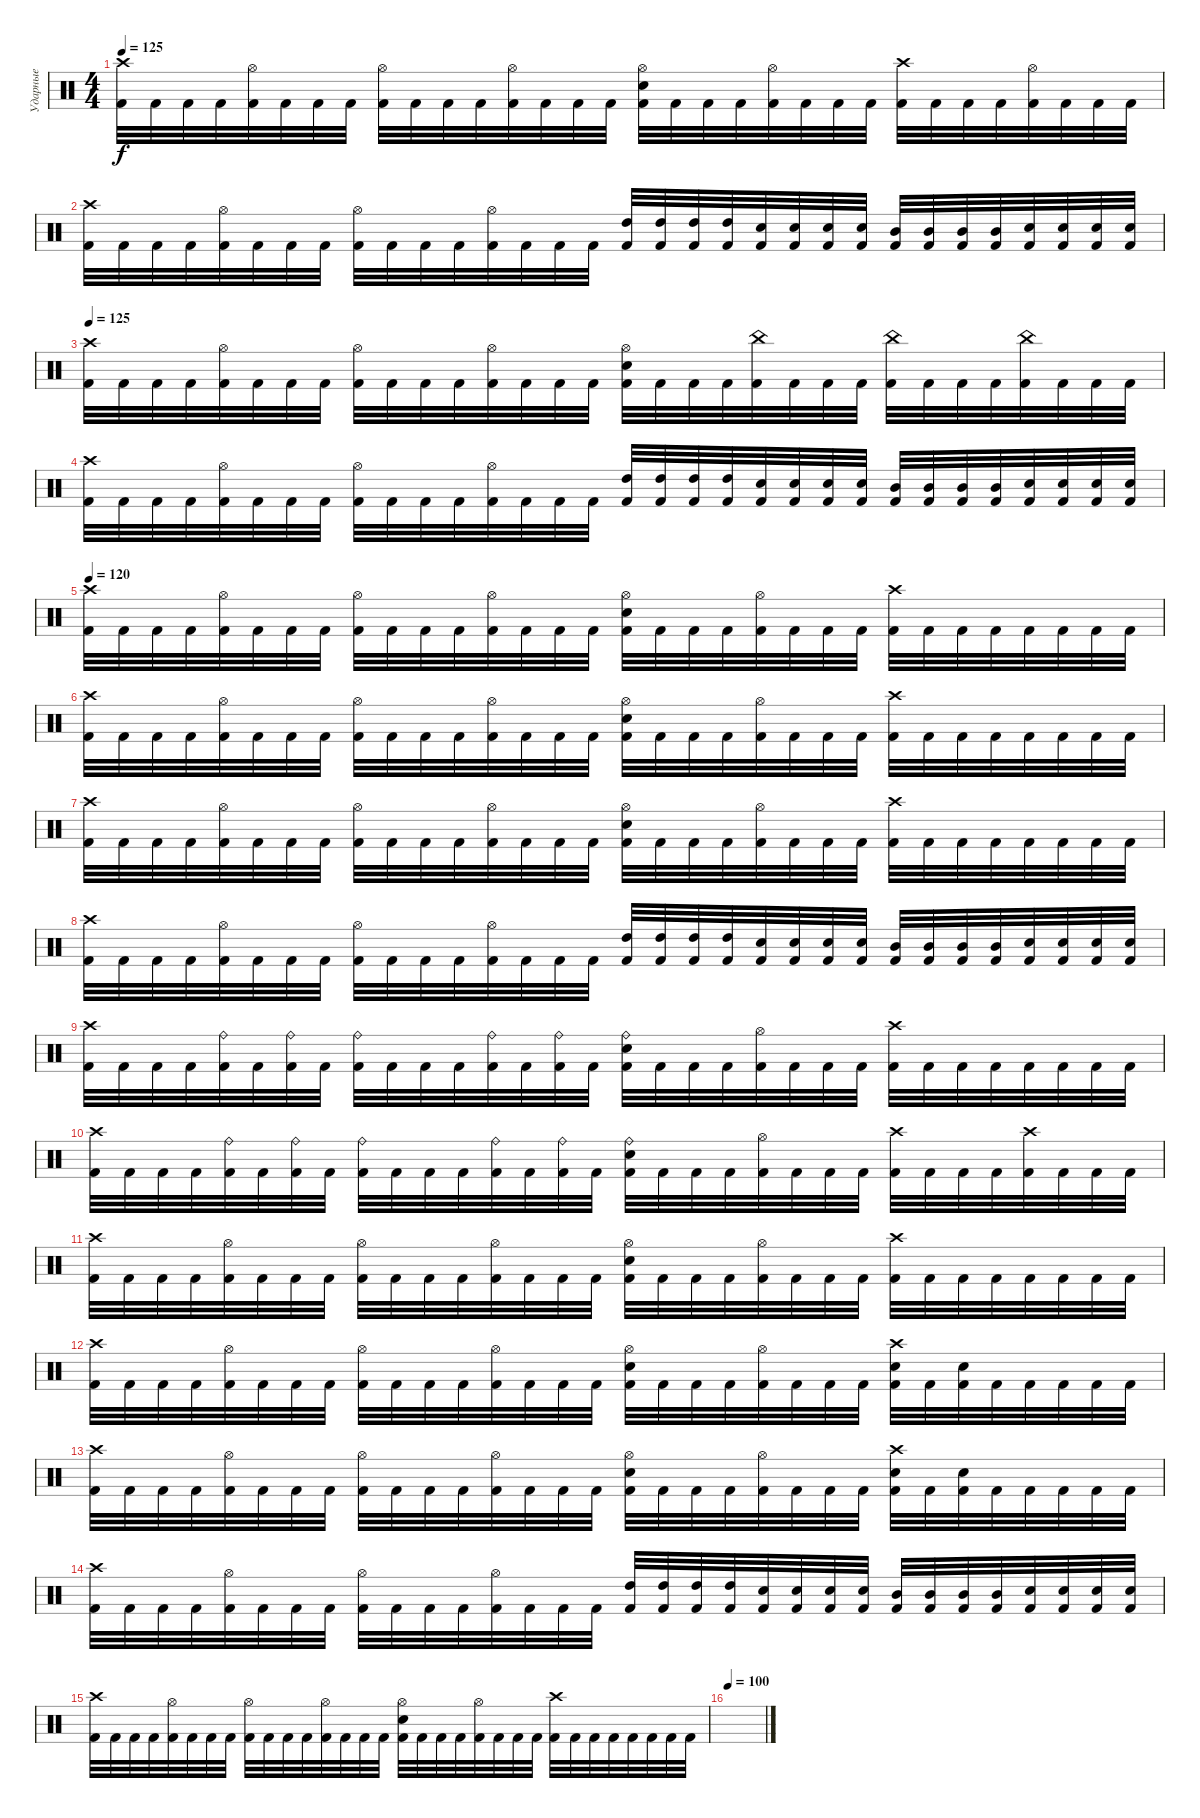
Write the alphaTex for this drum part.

\track ("Ударные" "Ударные") {instrument percussion}
\staff {score}
\articulation defaults
\ts (4 4)
\tempo 125
\clef neutral
\ks c
("Crash high (hit)" "Kick (hit) 2").32{dy f} "Kick (hit) 2".32 "Kick (hit) 2".32 "Kick (hit) 2".32 ("Hi-Hat (open)" "Kick (hit) 2").32 "Kick (hit) 2".32 "Kick (hit) 2".32 "Kick (hit) 2".32 ("Hi-Hat (open)" "Kick (hit) 2").32 "Kick (hit) 2".32 "Kick (hit) 2".32 "Kick (hit) 2".32 ("Hi-Hat (open)" "Kick (hit) 2").32 "Kick (hit) 2".32 "Kick (hit) 2".32 "Kick (hit) 2".32 ("Hi-Hat (open)" "Electric Snare (hit)" "Kick (hit) 2").32 "Kick (hit) 2".32 "Kick (hit) 2".32 "Kick (hit) 2".32 ("Hi-Hat (open)" "Kick (hit) 2").32 "Kick (hit) 2".32 "Kick (hit) 2".32 "Kick (hit) 2".32 ("Crash high (hit)" "Kick (hit) 2").32 "Kick (hit) 2".32 "Kick (hit) 2".32 "Kick (hit) 2".32 ("Hi-Hat (open)" "Kick (hit) 2").32 "Kick (hit) 2".32 "Kick (hit) 2".32 "Kick (hit) 2".32 |
("Crash high (hit)" "Kick (hit) 2").32 "Kick (hit) 2".32 "Kick (hit) 2".32 "Kick (hit) 2".32 ("Hi-Hat (open)" "Kick (hit) 2").32 "Kick (hit) 2".32 "Kick (hit) 2".32 "Kick (hit) 2".32 ("Hi-Hat (open)" "Kick (hit) 2").32 "Kick (hit) 2".32 "Kick (hit) 2".32 "Kick (hit) 2".32 ("Hi-Hat (open)" "Kick (hit) 2").32 "Kick (hit) 2".32 "Kick (hit) 2".32 "Kick (hit) 2".32 ("High Tom (hit)" "Kick (hit) 2").32 ("High Tom (hit)" "Kick (hit) 2").32 ("High Tom (hit)" "Kick (hit) 2").32 ("High Tom (hit)" "Kick (hit) 2").32 ("Electric Snare (hit)" "Kick (hit) 2").32 ("Electric Snare (hit)" "Kick (hit) 2").32 ("Electric Snare (hit)" "Kick (hit) 2").32 ("Electric Snare (hit)" "Kick (hit) 2").32 ("Mid Tom (hit)" "Kick (hit) 2").32 ("Mid Tom (hit)" "Kick (hit) 2").32 ("Mid Tom (hit)" "Kick (hit) 2").32 ("Mid Tom (hit)" "Kick (hit) 2").32 ("Electric Snare (hit)" "Kick (hit) 2").32 ("Electric Snare (hit)" "Kick (hit) 2").32 ("Electric Snare (hit)" "Kick (hit) 2").32 ("Electric Snare (hit)" "Kick (hit) 2").32 |
\tempo 125
("Crash high (hit)" "Kick (hit) 2").32 "Kick (hit) 2".32 "Kick (hit) 2".32 "Kick (hit) 2".32 ("Hi-Hat (open)" "Kick (hit) 2").32 "Kick (hit) 2".32 "Kick (hit) 2".32 "Kick (hit) 2".32 ("Hi-Hat (open)" "Kick (hit) 2").32 "Kick (hit) 2".32 "Kick (hit) 2".32 "Kick (hit) 2".32 ("Hi-Hat (open)" "Kick (hit) 2").32 "Kick (hit) 2".32 "Kick (hit) 2".32 "Kick (hit) 2".32 ("Hi-Hat (open)" "Electric Snare (hit)" "Kick (hit) 2").32 "Kick (hit) 2".32 "Kick (hit) 2".32 "Kick (hit) 2".32 ("China (hit)" "Kick (hit) 2").32 "Kick (hit) 2".32 "Kick (hit) 2".32 "Kick (hit) 2".32 ("China (hit)" "Kick (hit) 2").32 "Kick (hit) 2".32 "Kick (hit) 2".32 "Kick (hit) 2".32 ("China (hit)" "Kick (hit) 2").32 "Kick (hit) 2".32 "Kick (hit) 2".32 "Kick (hit) 2".32 |
("Crash high (hit)" "Kick (hit) 2").32 "Kick (hit) 2".32 "Kick (hit) 2".32 "Kick (hit) 2".32 ("Hi-Hat (open)" "Kick (hit) 2").32 "Kick (hit) 2".32 "Kick (hit) 2".32 "Kick (hit) 2".32 ("Hi-Hat (open)" "Kick (hit) 2").32 "Kick (hit) 2".32 "Kick (hit) 2".32 "Kick (hit) 2".32 ("Hi-Hat (open)" "Kick (hit) 2").32 "Kick (hit) 2".32 "Kick (hit) 2".32 "Kick (hit) 2".32 ("High Tom (hit)" "Kick (hit) 2").32 ("High Tom (hit)" "Kick (hit) 2").32 ("High Tom (hit)" "Kick (hit) 2").32 ("High Tom (hit)" "Kick (hit) 2").32 ("Electric Snare (hit)" "Kick (hit) 2").32 ("Electric Snare (hit)" "Kick (hit) 2").32 ("Electric Snare (hit)" "Kick (hit) 2").32 ("Electric Snare (hit)" "Kick (hit) 2").32 ("Mid Tom (hit)" "Kick (hit) 2").32 ("Mid Tom (hit)" "Kick (hit) 2").32 ("Mid Tom (hit)" "Kick (hit) 2").32 ("Mid Tom (hit)" "Kick (hit) 2").32 ("Electric Snare (hit)" "Kick (hit) 2").32 ("Electric Snare (hit)" "Kick (hit) 2").32 ("Electric Snare (hit)" "Kick (hit) 2").32 ("Electric Snare (hit)" "Kick (hit) 2").32 |
\tempo 120
("Crash high (hit)" "Kick (hit) 2").32 "Kick (hit) 2".32 "Kick (hit) 2".32 "Kick (hit) 2".32 ("Hi-Hat (open)" "Kick (hit) 2").32 "Kick (hit) 2".32 "Kick (hit) 2".32 "Kick (hit) 2".32 ("Hi-Hat (open)" "Kick (hit) 2").32 "Kick (hit) 2".32 "Kick (hit) 2".32 "Kick (hit) 2".32 ("Hi-Hat (open)" "Kick (hit) 2").32 "Kick (hit) 2".32 "Kick (hit) 2".32 "Kick (hit) 2".32 ("Hi-Hat (open)" "Electric Snare (hit)" "Kick (hit) 2").32 "Kick (hit) 2".32 "Kick (hit) 2".32 "Kick (hit) 2".32 ("Hi-Hat (open)" "Kick (hit) 2").32 "Kick (hit) 2".32 "Kick (hit) 2".32 "Kick (hit) 2".32 ("Crash high (hit)" "Kick (hit) 2").32 "Kick (hit) 2".32 "Kick (hit) 2".32 "Kick (hit) 2".32 "Kick (hit) 2".32 "Kick (hit) 2".32 "Kick (hit) 2".32 "Kick (hit) 2".32 |
("Crash high (hit)" "Kick (hit) 2").32 "Kick (hit) 2".32 "Kick (hit) 2".32 "Kick (hit) 2".32 ("Hi-Hat (open)" "Kick (hit) 2").32 "Kick (hit) 2".32 "Kick (hit) 2".32 "Kick (hit) 2".32 ("Hi-Hat (open)" "Kick (hit) 2").32 "Kick (hit) 2".32 "Kick (hit) 2".32 "Kick (hit) 2".32 ("Hi-Hat (open)" "Kick (hit) 2").32 "Kick (hit) 2".32 "Kick (hit) 2".32 "Kick (hit) 2".32 ("Hi-Hat (open)" "Electric Snare (hit)" "Kick (hit) 2").32 "Kick (hit) 2".32 "Kick (hit) 2".32 "Kick (hit) 2".32 ("Hi-Hat (open)" "Kick (hit) 2").32 "Kick (hit) 2".32 "Kick (hit) 2".32 "Kick (hit) 2".32 ("Crash high (hit)" "Kick (hit) 2").32 "Kick (hit) 2".32 "Kick (hit) 2".32 "Kick (hit) 2".32 "Kick (hit) 2".32 "Kick (hit) 2".32 "Kick (hit) 2".32 "Kick (hit) 2".32 |
("Crash high (hit)" "Kick (hit) 2").32 "Kick (hit) 2".32 "Kick (hit) 2".32 "Kick (hit) 2".32 ("Hi-Hat (open)" "Kick (hit) 2").32 "Kick (hit) 2".32 "Kick (hit) 2".32 "Kick (hit) 2".32 ("Hi-Hat (open)" "Kick (hit) 2").32 "Kick (hit) 2".32 "Kick (hit) 2".32 "Kick (hit) 2".32 ("Hi-Hat (open)" "Kick (hit) 2").32 "Kick (hit) 2".32 "Kick (hit) 2".32 "Kick (hit) 2".32 ("Hi-Hat (open)" "Electric Snare (hit)" "Kick (hit) 2").32 "Kick (hit) 2".32 "Kick (hit) 2".32 "Kick (hit) 2".32 ("Hi-Hat (open)" "Kick (hit) 2").32 "Kick (hit) 2".32 "Kick (hit) 2".32 "Kick (hit) 2".32 ("Crash high (hit)" "Kick (hit) 2").32 "Kick (hit) 2".32 "Kick (hit) 2".32 "Kick (hit) 2".32 "Kick (hit) 2".32 "Kick (hit) 2".32 "Kick (hit) 2".32 "Kick (hit) 2".32 |
("Crash high (hit)" "Kick (hit) 2").32 "Kick (hit) 2".32 "Kick (hit) 2".32 "Kick (hit) 2".32 ("Hi-Hat (open)" "Kick (hit) 2").32 "Kick (hit) 2".32 "Kick (hit) 2".32 "Kick (hit) 2".32 ("Hi-Hat (open)" "Kick (hit) 2").32 "Kick (hit) 2".32 "Kick (hit) 2".32 "Kick (hit) 2".32 ("Hi-Hat (open)" "Kick (hit) 2").32 "Kick (hit) 2".32 "Kick (hit) 2".32 "Kick (hit) 2".32 ("High Tom (hit)" "Kick (hit) 2").32 ("High Tom (hit)" "Kick (hit) 2").32 ("High Tom (hit)" "Kick (hit) 2").32 ("High Tom (hit)" "Kick (hit) 2").32 ("Electric Snare (hit)" "Kick (hit) 2").32 ("Electric Snare (hit)" "Kick (hit) 2").32 ("Electric Snare (hit)" "Kick (hit) 2").32 ("Electric Snare (hit)" "Kick (hit) 2").32 ("Mid Tom (hit)" "Kick (hit) 2").32 ("Mid Tom (hit)" "Kick (hit) 2").32 ("Mid Tom (hit)" "Kick (hit) 2").32 ("Mid Tom (hit)" "Kick (hit) 2").32 ("Electric Snare (hit)" "Kick (hit) 2").32 ("Electric Snare (hit)" "Kick (hit) 2").32 ("Electric Snare (hit)" "Kick (hit) 2").32 ("Electric Snare (hit)" "Kick (hit) 2").32 |
("Crash high (hit)" "Kick (hit) 2").32 "Kick (hit) 2".32 "Kick (hit) 2".32 "Kick (hit) 2".32 ("Ride (bell)" "Kick (hit) 2").32 "Kick (hit) 2".32 ("Ride (bell)" "Kick (hit) 2").32 "Kick (hit) 2".32 ("Ride (bell)" "Kick (hit) 2").32 "Kick (hit) 2".32 "Kick (hit) 2".32 "Kick (hit) 2".32 ("Ride (bell)" "Kick (hit) 2").32 "Kick (hit) 2".32 ("Ride (bell)" "Kick (hit) 2").32 "Kick (hit) 2".32 ("Ride (bell)" "Electric Snare (hit)" "Kick (hit) 2").32 "Kick (hit) 2".32 "Kick (hit) 2".32 "Kick (hit) 2".32 ("Hi-Hat (open)" "Kick (hit) 2").32 "Kick (hit) 2".32 "Kick (hit) 2".32 "Kick (hit) 2".32 ("Crash high (hit)" "Kick (hit) 2").32 "Kick (hit) 2".32 "Kick (hit) 2".32 "Kick (hit) 2".32 "Kick (hit) 2".32 "Kick (hit) 2".32 "Kick (hit) 2".32 "Kick (hit) 2".32 |
("Crash high (hit)" "Kick (hit) 2").32 "Kick (hit) 2".32 "Kick (hit) 2".32 "Kick (hit) 2".32 ("Ride (bell)" "Kick (hit) 2").32 "Kick (hit) 2".32 ("Ride (bell)" "Kick (hit) 2").32 "Kick (hit) 2".32 ("Ride (bell)" "Kick (hit) 2").32 "Kick (hit) 2".32 "Kick (hit) 2".32 "Kick (hit) 2".32 ("Ride (bell)" "Kick (hit) 2").32 "Kick (hit) 2".32 ("Ride (bell)" "Kick (hit) 2").32 "Kick (hit) 2".32 ("Ride (bell)" "Electric Snare (hit)" "Kick (hit) 2").32 "Kick (hit) 2".32 "Kick (hit) 2".32 "Kick (hit) 2".32 ("Hi-Hat (open)" "Kick (hit) 2").32 "Kick (hit) 2".32 "Kick (hit) 2".32 "Kick (hit) 2".32 ("Crash high (hit)" "Kick (hit) 2").32 "Kick (hit) 2".32 "Kick (hit) 2".32 "Kick (hit) 2".32 ("Crash high (hit)" "Kick (hit) 2").32 "Kick (hit) 2".32 "Kick (hit) 2".32 "Kick (hit) 2".32 |
("Crash high (hit)" "Kick (hit) 2").32 "Kick (hit) 2".32 "Kick (hit) 2".32 "Kick (hit) 2".32 ("Hi-Hat (open)" "Kick (hit) 2").32 "Kick (hit) 2".32 "Kick (hit) 2".32 "Kick (hit) 2".32 ("Hi-Hat (open)" "Kick (hit) 2").32 "Kick (hit) 2".32 "Kick (hit) 2".32 "Kick (hit) 2".32 ("Hi-Hat (open)" "Kick (hit) 2").32 "Kick (hit) 2".32 "Kick (hit) 2".32 "Kick (hit) 2".32 ("Hi-Hat (open)" "Electric Snare (hit)" "Kick (hit) 2").32 "Kick (hit) 2".32 "Kick (hit) 2".32 "Kick (hit) 2".32 ("Hi-Hat (open)" "Kick (hit) 2").32 "Kick (hit) 2".32 "Kick (hit) 2".32 "Kick (hit) 2".32 ("Crash high (hit)" "Kick (hit) 2").32 "Kick (hit) 2".32 "Kick (hit) 2".32 "Kick (hit) 2".32 "Kick (hit) 2".32 "Kick (hit) 2".32 "Kick (hit) 2".32 "Kick (hit) 2".32 |
("Crash high (hit)" "Kick (hit) 2").32 "Kick (hit) 2".32 "Kick (hit) 2".32 "Kick (hit) 2".32 ("Hi-Hat (open)" "Kick (hit) 2").32 "Kick (hit) 2".32 "Kick (hit) 2".32 "Kick (hit) 2".32 ("Hi-Hat (open)" "Kick (hit) 2").32 "Kick (hit) 2".32 "Kick (hit) 2".32 "Kick (hit) 2".32 ("Hi-Hat (open)" "Kick (hit) 2").32 "Kick (hit) 2".32 "Kick (hit) 2".32 "Kick (hit) 2".32 ("Hi-Hat (open)" "Electric Snare (hit)" "Kick (hit) 2").32 "Kick (hit) 2".32 "Kick (hit) 2".32 "Kick (hit) 2".32 ("Hi-Hat (open)" "Kick (hit) 2").32 "Kick (hit) 2".32 "Kick (hit) 2".32 "Kick (hit) 2".32 ("Crash high (hit)" "Electric Snare (hit)" "Kick (hit) 2").32 "Kick (hit) 2".32 ("Electric Snare (hit)" "Kick (hit) 2").32 "Kick (hit) 2".32 "Kick (hit) 2".32 "Kick (hit) 2".32 "Kick (hit) 2".32 "Kick (hit) 2".32 |
("Crash high (hit)" "Kick (hit) 2").32 "Kick (hit) 2".32 "Kick (hit) 2".32 "Kick (hit) 2".32 ("Hi-Hat (open)" "Kick (hit) 2").32 "Kick (hit) 2".32 "Kick (hit) 2".32 "Kick (hit) 2".32 ("Hi-Hat (open)" "Kick (hit) 2").32 "Kick (hit) 2".32 "Kick (hit) 2".32 "Kick (hit) 2".32 ("Hi-Hat (open)" "Kick (hit) 2").32 "Kick (hit) 2".32 "Kick (hit) 2".32 "Kick (hit) 2".32 ("Hi-Hat (open)" "Electric Snare (hit)" "Kick (hit) 2").32 "Kick (hit) 2".32 "Kick (hit) 2".32 "Kick (hit) 2".32 ("Hi-Hat (open)" "Kick (hit) 2").32 "Kick (hit) 2".32 "Kick (hit) 2".32 "Kick (hit) 2".32 ("Crash high (hit)" "Electric Snare (hit)" "Kick (hit) 2").32 "Kick (hit) 2".32 ("Electric Snare (hit)" "Kick (hit) 2").32 "Kick (hit) 2".32 "Kick (hit) 2".32 "Kick (hit) 2".32 "Kick (hit) 2".32 "Kick (hit) 2".32 |
("Crash high (hit)" "Kick (hit) 2").32 "Kick (hit) 2".32 "Kick (hit) 2".32 "Kick (hit) 2".32 ("Hi-Hat (open)" "Kick (hit) 2").32 "Kick (hit) 2".32 "Kick (hit) 2".32 "Kick (hit) 2".32 ("Hi-Hat (open)" "Kick (hit) 2").32 "Kick (hit) 2".32 "Kick (hit) 2".32 "Kick (hit) 2".32 ("Hi-Hat (open)" "Kick (hit) 2").32 "Kick (hit) 2".32 "Kick (hit) 2".32 "Kick (hit) 2".32 ("High Tom (hit)" "Kick (hit) 2").32 ("High Tom (hit)" "Kick (hit) 2").32 ("High Tom (hit)" "Kick (hit) 2").32 ("High Tom (hit)" "Kick (hit) 2").32 ("Electric Snare (hit)" "Kick (hit) 2").32 ("Electric Snare (hit)" "Kick (hit) 2").32 ("Electric Snare (hit)" "Kick (hit) 2").32 ("Electric Snare (hit)" "Kick (hit) 2").32 ("Mid Tom (hit)" "Kick (hit) 2").32 ("Mid Tom (hit)" "Kick (hit) 2").32 ("Mid Tom (hit)" "Kick (hit) 2").32 ("Mid Tom (hit)" "Kick (hit) 2").32 ("Electric Snare (hit)" "Kick (hit) 2").32 ("Electric Snare (hit)" "Kick (hit) 2").32 ("Electric Snare (hit)" "Kick (hit) 2").32 ("Electric Snare (hit)" "Kick (hit) 2").32 |
("Crash high (hit)" "Kick (hit) 2").32 "Kick (hit) 2".32 "Kick (hit) 2".32 "Kick (hit) 2".32 ("Hi-Hat (open)" "Kick (hit) 2").32 "Kick (hit) 2".32 "Kick (hit) 2".32 "Kick (hit) 2".32 ("Hi-Hat (open)" "Kick (hit) 2").32 "Kick (hit) 2".32 "Kick (hit) 2".32 "Kick (hit) 2".32 ("Hi-Hat (open)" "Kick (hit) 2").32 "Kick (hit) 2".32 "Kick (hit) 2".32 "Kick (hit) 2".32 ("Hi-Hat (open)" "Electric Snare (hit)" "Kick (hit) 2").32 "Kick (hit) 2".32 "Kick (hit) 2".32 "Kick (hit) 2".32 ("Hi-Hat (open)" "Kick (hit) 2").32 "Kick (hit) 2".32 "Kick (hit) 2".32 "Kick (hit) 2".32 ("Crash high (hit)" "Kick (hit) 2").32 "Kick (hit) 2".32 "Kick (hit) 2".32 "Kick (hit) 2".32 "Kick (hit) 2".32 "Kick (hit) 2".32 "Kick (hit) 2".32 "Kick (hit) 2".32 |
\tempo 100
